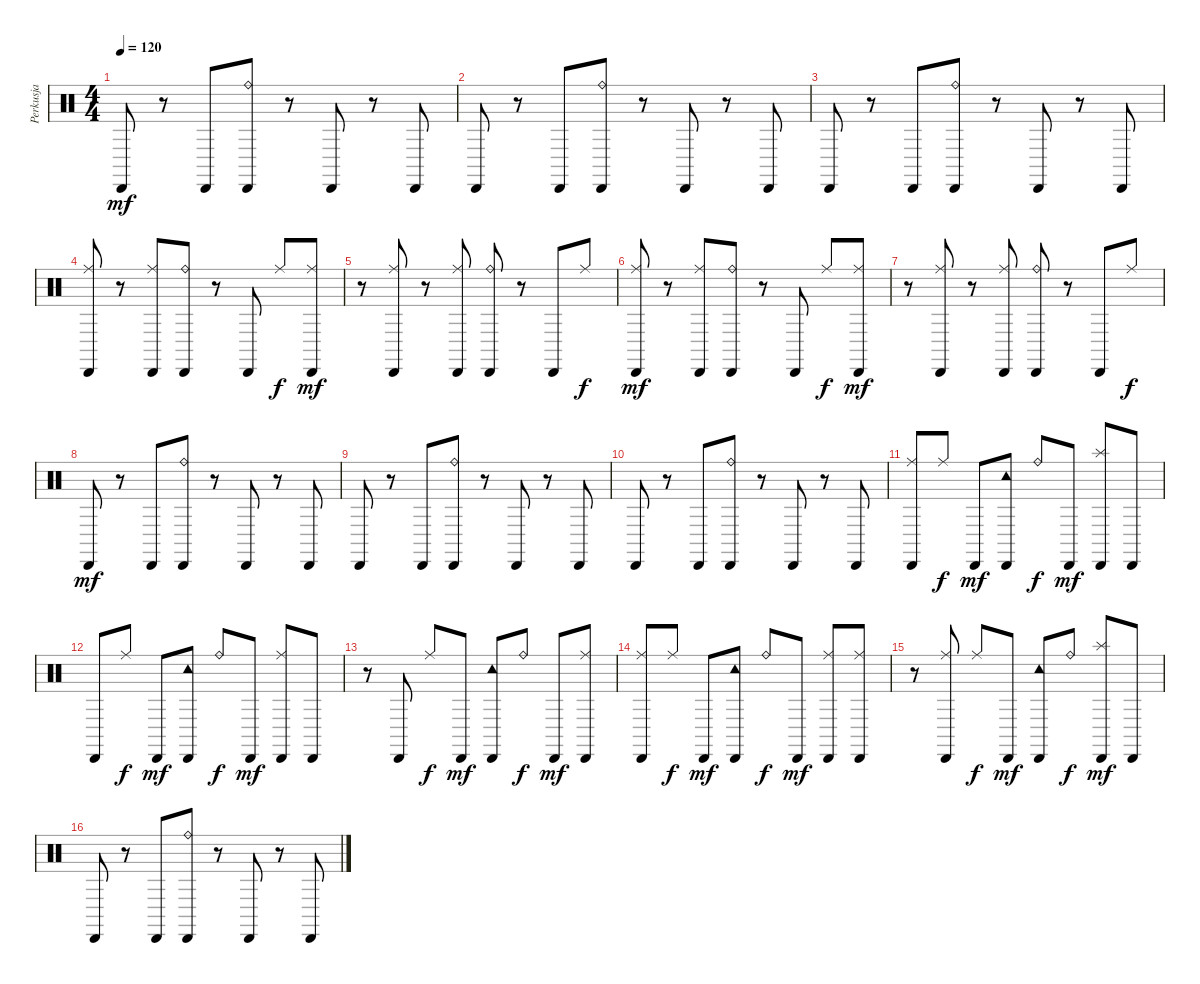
\track ("Perkusja" "Perkusja") {instrument percussion}
\staff {score}
\articulation defaults
\ts (4 4)
\tempo 120
\clef neutral
\ks c "Cabasa (hit)".8{dy mf}
r.8 "Cabasa (hit)".8 ("Ride (bell)" "Cabasa (hit)").8 r.8 "Cabasa (hit)".8 r.8 "Cabasa (hit)".8 |
"Cabasa (hit)".8 r.8 "Cabasa (hit)".8 ("Ride (bell)" "Cabasa (hit)").8 r.8 "Cabasa (hit)".8 r.8 "Cabasa (hit)".8 |
"Cabasa (hit)".8 r.8 "Cabasa (hit)".8 ("Ride (bell)" "Cabasa (hit)").8 r.8 "Cabasa (hit)".8 r.8 "Cabasa (hit)".8 |
("Ride (middle)" "Cabasa (hit)").8 r.8 ("Ride (middle)" "Cabasa (hit)").8 ("Ride (bell)" "Cabasa (hit)").8 r.8 "Cabasa (hit)".8 "Ride (middle)".8{dy f} ("Ride (middle)" "Cabasa (hit)").8{dy mf} |
r.8 ("Ride (middle)" "Cabasa (hit)").8 r.8 ("Ride (middle)" "Cabasa (hit)").8 ("Ride (bell)" "Cabasa (hit)").8 r.8 "Cabasa (hit)".8 "Ride (middle)".8{dy f} |
("Ride (middle)" "Cabasa (hit)").8{dy mf} r.8 ("Ride (middle)" "Cabasa (hit)").8 ("Ride (bell)" "Cabasa (hit)").8 r.8 "Cabasa (hit)".8 "Ride (middle)".8{dy f} ("Ride (middle)" "Cabasa (hit)").8{dy mf} |
r.8 ("Ride (middle)" "Cabasa (hit)").8 r.8 ("Ride (middle)" "Cabasa (hit)").8 ("Ride (bell)" "Cabasa (hit)").8 r.8 "Cabasa (hit)".8 "Ride (middle)".8{dy f} |
"Cabasa (hit)".8{dy mf} r.8 "Cabasa (hit)".8 ("Ride (bell)" "Cabasa (hit)").8 r.8 "Cabasa (hit)".8 r.8 "Cabasa (hit)".8 |
"Cabasa (hit)".8 r.8 "Cabasa (hit)".8 ("Ride (bell)" "Cabasa (hit)").8 r.8 "Cabasa (hit)".8 r.8 "Cabasa (hit)".8 |
"Cabasa (hit)".8 r.8 "Cabasa (hit)".8 ("Ride (bell)" "Cabasa (hit)").8 r.8 "Cabasa (hit)".8 r.8 "Cabasa (hit)".8 |
("Ride (middle)" "Cabasa (hit)").8 "Ride (middle)".8{dy f} "Cabasa (hit)".8{dy mf} ("Tambourine (hit)" "Cabasa (hit)").8 "Ride (bell)".8{dy f} "Cabasa (hit)".8{dy mf} ("Splash (hit)" "Cabasa (hit)").8 "Cabasa (hit)".8 |
"Cabasa (hit)".8 "Ride (middle)".8{dy f} "Cabasa (hit)".8{dy mf} ("Tambourine (hit)" "Cabasa (hit)").8 "Ride (bell)".8{dy f} "Cabasa (hit)".8{dy mf} ("Ride (middle)" "Cabasa (hit)").8 "Cabasa (hit)".8 |
r.8 "Cabasa (hit)".8 "Ride (middle)".8{dy f} "Cabasa (hit)".8{dy mf} ("Tambourine (hit)" "Cabasa (hit)").8 "Ride (bell)".8{dy f} "Cabasa (hit)".8{dy mf} ("Ride (middle)" "Cabasa (hit)").8 |
("Ride (middle)" "Cabasa (hit)").8 "Ride (middle)".8{dy f} "Cabasa (hit)".8{dy mf} ("Tambourine (hit)" "Cabasa (hit)").8 "Ride (bell)".8{dy f} "Cabasa (hit)".8{dy mf} ("Ride (middle)" "Cabasa (hit)").8 ("Ride (middle)" "Cabasa (hit)").8 |
r.8 ("Ride (middle)" "Cabasa (hit)").8 "Ride (middle)".8{dy f} "Cabasa (hit)".8{dy mf} ("Tambourine (hit)" "Cabasa (hit)").8 "Ride (bell)".8{dy f} ("Splash (hit)" "Cabasa (hit)").8{dy mf} "Cabasa (hit)".8 |
"Cabasa (hit)".8 r.8 "Cabasa (hit)".8 ("Ride (bell)" "Cabasa (hit)").8 r.8 "Cabasa (hit)".8 r.8 "Cabasa (hit)".8
